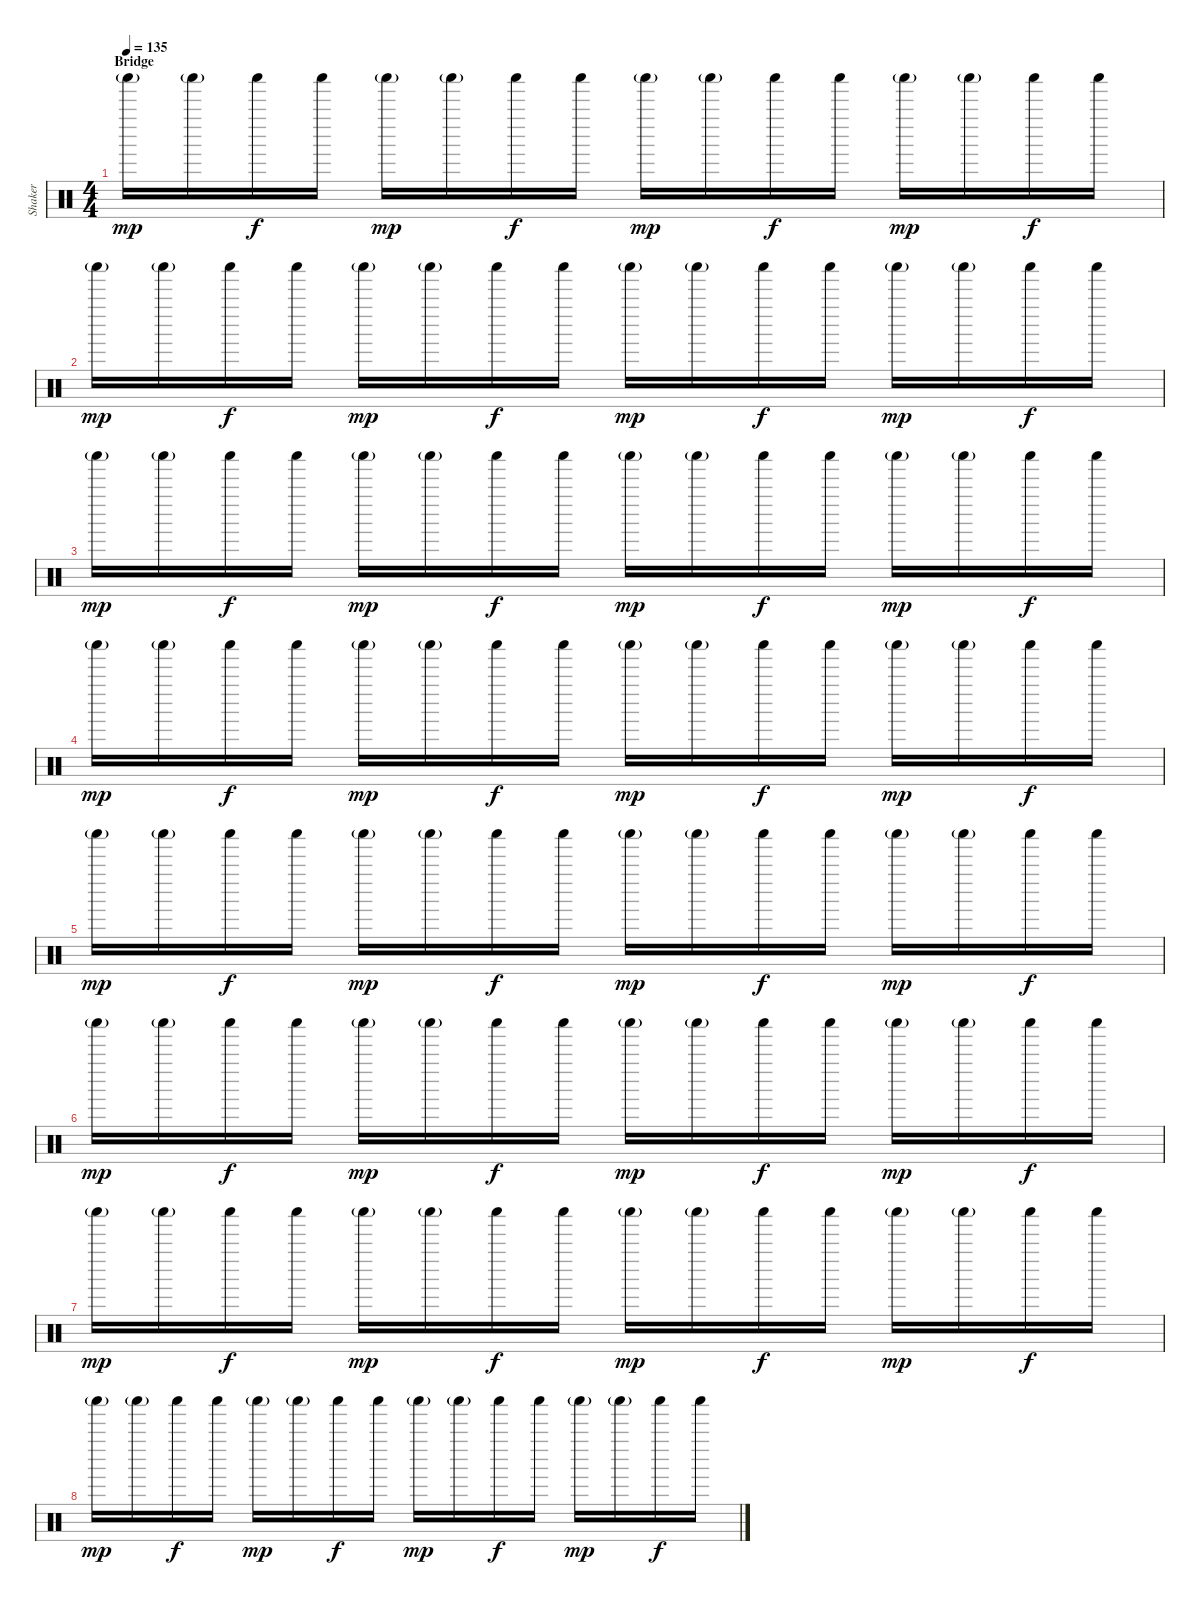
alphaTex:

\track ("Shaker" "Shaker") {instrument percussion}
\staff {score}
\articulation defaults
\ts (4 4)
\section ("" "Bridge")
\tempo 135
\clef neutral
\ks c "Shaker (hit)"{g}.16{dy mp} "Shaker (hit)"{g}.16 "Shaker (hit)".16{dy f} "Shaker (hit)".16 "Shaker (hit)"{g}.16{dy mp} "Shaker (hit)"{g}.16 "Shaker (hit)".16{dy f} "Shaker (hit)".16 "Shaker (hit)"{g}.16{dy mp} "Shaker (hit)"{g}.16 "Shaker (hit)".16{dy f} "Shaker (hit)".16 "Shaker (hit)"{g}.16{dy mp} "Shaker (hit)"{g}.16 "Shaker (hit)".16{dy f} "Shaker (hit)".16
|
"Shaker (hit)"{g}.16{dy mp} "Shaker (hit)"{g}.16 "Shaker (hit)".16{dy f} "Shaker (hit)".16 "Shaker (hit)"{g}.16{dy mp} "Shaker (hit)"{g}.16 "Shaker (hit)".16{dy f} "Shaker (hit)".16 "Shaker (hit)"{g}.16{dy mp} "Shaker (hit)"{g}.16 "Shaker (hit)".16{dy f} "Shaker (hit)".16 "Shaker (hit)"{g}.16{dy mp} "Shaker (hit)"{g}.16 "Shaker (hit)".16{dy f} "Shaker (hit)".16 |
"Shaker (hit)"{g}.16{dy mp} "Shaker (hit)"{g}.16 "Shaker (hit)".16{dy f} "Shaker (hit)".16 "Shaker (hit)"{g}.16{dy mp} "Shaker (hit)"{g}.16 "Shaker (hit)".16{dy f} "Shaker (hit)".16 "Shaker (hit)"{g}.16{dy mp} "Shaker (hit)"{g}.16 "Shaker (hit)".16{dy f} "Shaker (hit)".16 "Shaker (hit)"{g}.16{dy mp} "Shaker (hit)"{g}.16 "Shaker (hit)".16{dy f} "Shaker (hit)".16 |
"Shaker (hit)"{g}.16{dy mp} "Shaker (hit)"{g}.16 "Shaker (hit)".16{dy f} "Shaker (hit)".16 "Shaker (hit)"{g}.16{dy mp} "Shaker (hit)"{g}.16 "Shaker (hit)".16{dy f} "Shaker (hit)".16 "Shaker (hit)"{g}.16{dy mp} "Shaker (hit)"{g}.16 "Shaker (hit)".16{dy f} "Shaker (hit)".16 "Shaker (hit)"{g}.16{dy mp} "Shaker (hit)"{g}.16 "Shaker (hit)".16{dy f} "Shaker (hit)".16 |
"Shaker (hit)"{g}.16{dy mp} "Shaker (hit)"{g}.16 "Shaker (hit)".16{dy f} "Shaker (hit)".16 "Shaker (hit)"{g}.16{dy mp} "Shaker (hit)"{g}.16 "Shaker (hit)".16{dy f} "Shaker (hit)".16 "Shaker (hit)"{g}.16{dy mp} "Shaker (hit)"{g}.16 "Shaker (hit)".16{dy f} "Shaker (hit)".16 "Shaker (hit)"{g}.16{dy mp} "Shaker (hit)"{g}.16 "Shaker (hit)".16{dy f} "Shaker (hit)".16 |
"Shaker (hit)"{g}.16{dy mp} "Shaker (hit)"{g}.16 "Shaker (hit)".16{dy f} "Shaker (hit)".16 "Shaker (hit)"{g}.16{dy mp} "Shaker (hit)"{g}.16 "Shaker (hit)".16{dy f} "Shaker (hit)".16 "Shaker (hit)"{g}.16{dy mp} "Shaker (hit)"{g}.16 "Shaker (hit)".16{dy f} "Shaker (hit)".16 "Shaker (hit)"{g}.16{dy mp} "Shaker (hit)"{g}.16 "Shaker (hit)".16{dy f} "Shaker (hit)".16 |
"Shaker (hit)"{g}.16{dy mp} "Shaker (hit)"{g}.16 "Shaker (hit)".16{dy f} "Shaker (hit)".16 "Shaker (hit)"{g}.16{dy mp} "Shaker (hit)"{g}.16 "Shaker (hit)".16{dy f} "Shaker (hit)".16 "Shaker (hit)"{g}.16{dy mp} "Shaker (hit)"{g}.16 "Shaker (hit)".16{dy f} "Shaker (hit)".16 "Shaker (hit)"{g}.16{dy mp} "Shaker (hit)"{g}.16 "Shaker (hit)".16{dy f} "Shaker (hit)".16 |
"Shaker (hit)"{g}.16{dy mp} "Shaker (hit)"{g}.16 "Shaker (hit)".16{dy f} "Shaker (hit)".16 "Shaker (hit)"{g}.16{dy mp} "Shaker (hit)"{g}.16 "Shaker (hit)".16{dy f} "Shaker (hit)".16 "Shaker (hit)"{g}.16{dy mp} "Shaker (hit)"{g}.16 "Shaker (hit)".16{dy f} "Shaker (hit)".16 "Shaker (hit)"{g}.16{dy mp} "Shaker (hit)"{g}.16 "Shaker (hit)".16{dy f} "Shaker (hit)".16
